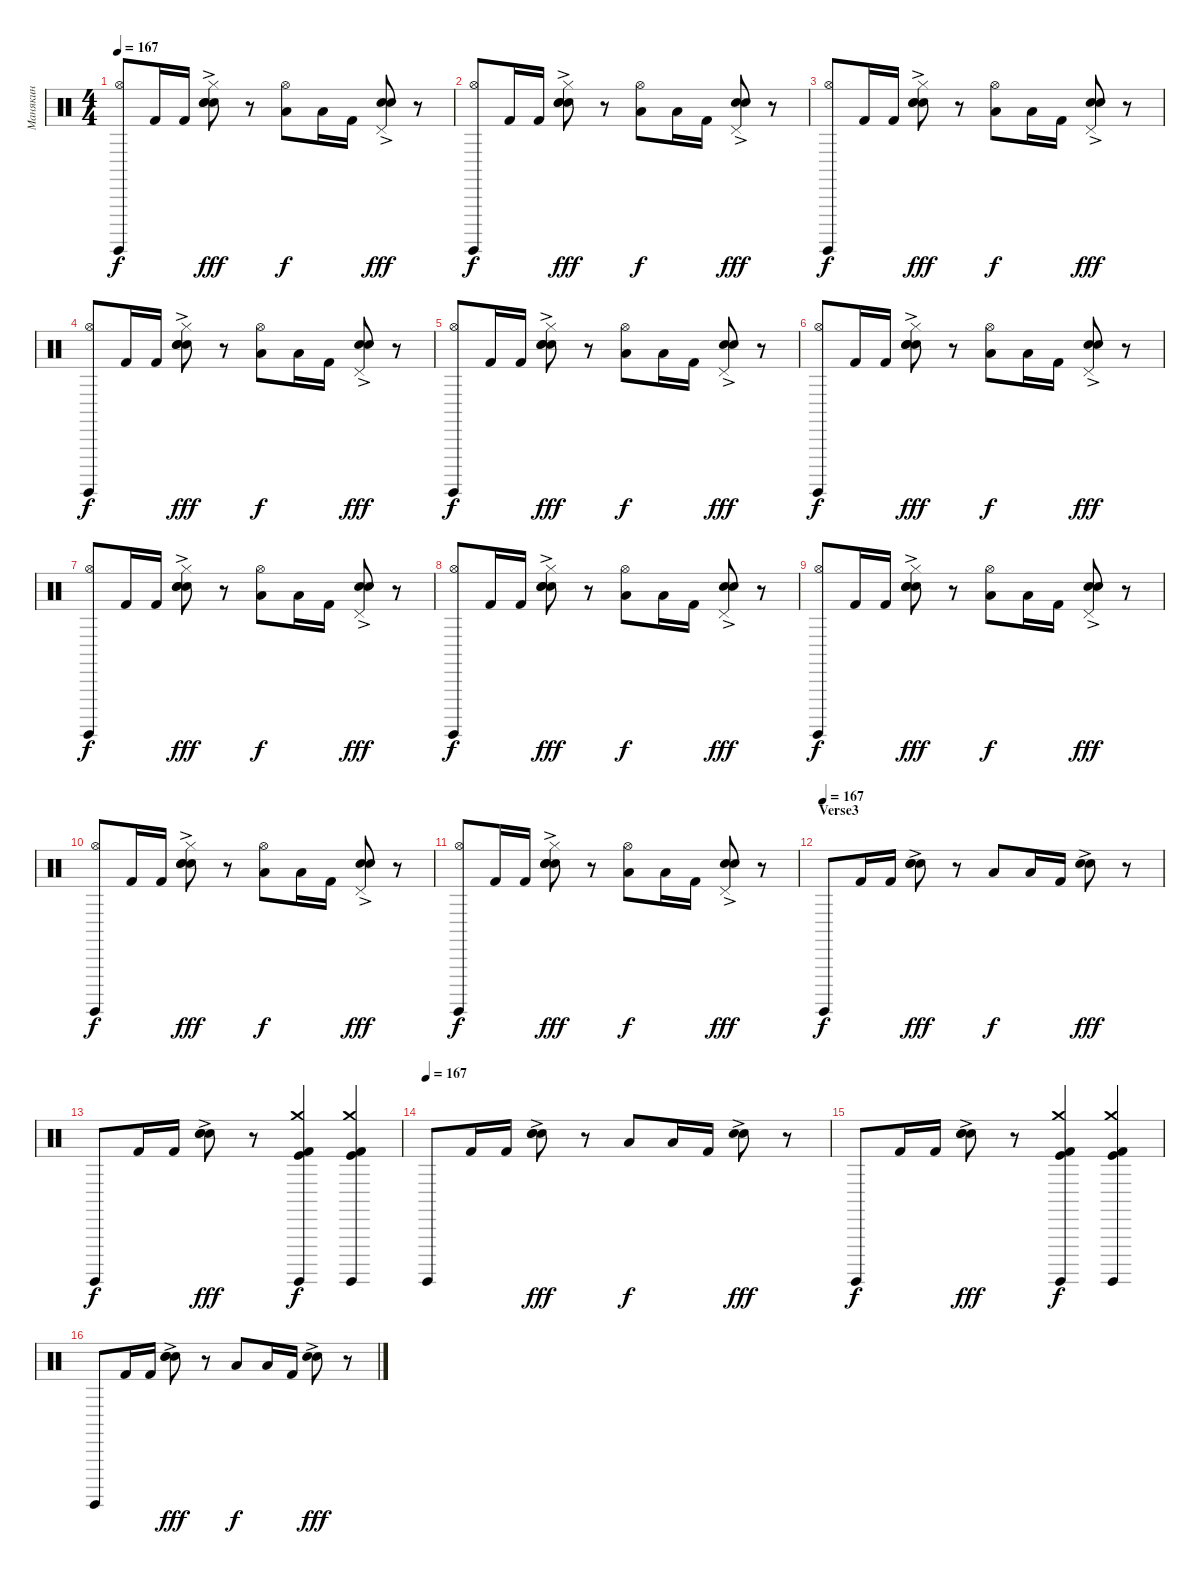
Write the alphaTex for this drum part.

\track ("Манякин" "Манякин") {instrument percussion}
\staff {score}
\articulation defaults
\ts (4 4)
\tempo 167
\clef neutral
\ks c
("Surdo (hit)" "Hi-Hat (open)").8{dy f} "Kick (hit) 2".16 "Kick (hit) 2".16 ("Hi-Hat (closed)" "Electric Snare (hit)"{ac} "Snare (hit) 2" "Electric Snare (hit)").8{dy fff} r.8 ("Low Tom (hit)" "Hi-Hat (open)").8{dy f} "Low Tom (hit)".16 "Kick (hit) 2".16 ("Electric Snare (hit)"{ac} "Snare (hit) 2" "Pedal Hi-Hat (hit)").8{dy fff} r.8 |
("Surdo (hit)" "Hi-Hat (open)").8{dy f} "Kick (hit) 2".16 "Kick (hit) 2".16 ("Hi-Hat (closed)" "Electric Snare (hit)"{ac} "Snare (hit) 2" "Electric Snare (hit)").8{dy fff} r.8 ("Low Tom (hit)" "Hi-Hat (open)").8{dy f} "Low Tom (hit)".16 "Kick (hit) 2".16 ("Electric Snare (hit)"{ac} "Snare (hit) 2" "Pedal Hi-Hat (hit)").8{dy fff} r.8 |
("Surdo (hit)" "Hi-Hat (open)").8{dy f} "Kick (hit) 2".16 "Kick (hit) 2".16 ("Hi-Hat (closed)" "Electric Snare (hit)"{ac} "Snare (hit) 2" "Electric Snare (hit)").8{dy fff} r.8 ("Low Tom (hit)" "Hi-Hat (open)").8{dy f} "Low Tom (hit)".16 "Kick (hit) 2".16 ("Electric Snare (hit)"{ac} "Snare (hit) 2" "Pedal Hi-Hat (hit)").8{dy fff} r.8 |
("Surdo (hit)" "Hi-Hat (open)").8{dy f} "Kick (hit) 2".16 "Kick (hit) 2".16 ("Hi-Hat (closed)" "Electric Snare (hit)"{ac} "Snare (hit) 2" "Electric Snare (hit)").8{dy fff} r.8 ("Low Tom (hit)" "Hi-Hat (open)").8{dy f} "Low Tom (hit)".16 "Kick (hit) 2".16 ("Electric Snare (hit)"{ac} "Snare (hit) 2" "Pedal Hi-Hat (hit)").8{dy fff} r.8 |
("Surdo (hit)" "Hi-Hat (open)").8{dy f} "Kick (hit) 2".16 "Kick (hit) 2".16 ("Hi-Hat (closed)" "Electric Snare (hit)"{ac} "Snare (hit) 2" "Electric Snare (hit)").8{dy fff} r.8 ("Low Tom (hit)" "Hi-Hat (open)").8{dy f} "Low Tom (hit)".16 "Kick (hit) 2".16 ("Electric Snare (hit)"{ac} "Snare (hit) 2" "Pedal Hi-Hat (hit)").8{dy fff} r.8 |
("Surdo (hit)" "Hi-Hat (open)").8{dy f} "Kick (hit) 2".16 "Kick (hit) 2".16 ("Hi-Hat (closed)" "Electric Snare (hit)"{ac} "Snare (hit) 2" "Electric Snare (hit)").8{dy fff} r.8 ("Low Tom (hit)" "Hi-Hat (open)").8{dy f} "Low Tom (hit)".16 "Kick (hit) 2".16 ("Electric Snare (hit)"{ac} "Snare (hit) 2" "Pedal Hi-Hat (hit)").8{dy fff} r.8 |
("Surdo (hit)" "Hi-Hat (open)").8{dy f} "Kick (hit) 2".16 "Kick (hit) 2".16 ("Hi-Hat (closed)" "Electric Snare (hit)"{ac} "Snare (hit) 2" "Electric Snare (hit)").8{dy fff} r.8 ("Low Tom (hit)" "Hi-Hat (open)").8{dy f} "Low Tom (hit)".16 "Kick (hit) 2".16 ("Electric Snare (hit)"{ac} "Snare (hit) 2" "Pedal Hi-Hat (hit)").8{dy fff} r.8 |
("Surdo (hit)" "Hi-Hat (open)").8{dy f} "Kick (hit) 2".16 "Kick (hit) 2".16 ("Hi-Hat (closed)" "Electric Snare (hit)"{ac} "Snare (hit) 2" "Electric Snare (hit)").8{dy fff} r.8 ("Low Tom (hit)" "Hi-Hat (open)").8{dy f} "Low Tom (hit)".16 "Kick (hit) 2".16 ("Electric Snare (hit)"{ac} "Snare (hit) 2" "Pedal Hi-Hat (hit)").8{dy fff} r.8 |
("Surdo (hit)" "Hi-Hat (open)").8{dy f} "Kick (hit) 2".16 "Kick (hit) 2".16 ("Hi-Hat (closed)" "Electric Snare (hit)"{ac} "Snare (hit) 2" "Electric Snare (hit)").8{dy fff} r.8 ("Low Tom (hit)" "Hi-Hat (open)").8{dy f} "Low Tom (hit)".16 "Kick (hit) 2".16 ("Electric Snare (hit)"{ac} "Snare (hit) 2" "Pedal Hi-Hat (hit)").8{dy fff} r.8 |
("Surdo (hit)" "Hi-Hat (open)").8{dy f} "Kick (hit) 2".16 "Kick (hit) 2".16 ("Hi-Hat (closed)" "Electric Snare (hit)"{ac} "Snare (hit) 2" "Electric Snare (hit)").8{dy fff} r.8 ("Low Tom (hit)" "Hi-Hat (open)").8{dy f} "Low Tom (hit)".16 "Kick (hit) 2".16 ("Electric Snare (hit)"{ac} "Snare (hit) 2" "Pedal Hi-Hat (hit)").8{dy fff} r.8 |
("Surdo (hit)" "Hi-Hat (open)").8{dy f} "Kick (hit) 2".16 "Kick (hit) 2".16 ("Hi-Hat (closed)" "Electric Snare (hit)"{ac} "Snare (hit) 2" "Electric Snare (hit)").8{dy fff} r.8 ("Low Tom (hit)" "Hi-Hat (open)").8{dy f} "Low Tom (hit)".16 "Kick (hit) 2".16 ("Electric Snare (hit)"{ac} "Snare (hit) 2" "Pedal Hi-Hat (hit)").8{dy fff} r.8 |
\section ("" "Verse3")
\tempo (167)
"Surdo (hit)".8{dy f} "Kick (hit) 2".16 "Kick (hit) 2".16 ("Electric Snare (hit)"{ac} "Snare (hit) 2" "Electric Snare (hit)").8{dy fff} r.8 "Low Tom (hit)".8{dy f} "Low Tom (hit)".16 "Kick (hit) 2".16 ("Electric Snare (hit)"{ac} "Snare (hit) 2").8{dy fff} r.8 |
"Surdo (hit)".8{dy f} "Kick (hit) 2".16 "Kick (hit) 2".16 ("Electric Snare (hit)"{ac} "Snare (hit) 2" "Electric Snare (hit)").8{dy fff} r.8 ("Kick (hit)" "Crash medium (hit)" "Kick (hit) 2" "Surdo (hit)").4{dy f} ("Kick (hit)" "Crash medium (hit)" "Kick (hit) 2" "Surdo (hit)").4 |
\tempo (167)
"Surdo (hit)".8 "Kick (hit) 2".16 "Kick (hit) 2".16 ("Electric Snare (hit)"{ac} "Snare (hit) 2" "Electric Snare (hit)").8{dy fff} r.8 "Low Tom (hit)".8{dy f} "Low Tom (hit)".16 "Kick (hit) 2".16 ("Electric Snare (hit)"{ac} "Snare (hit) 2").8{dy fff} r.8 |
"Surdo (hit)".8{dy f} "Kick (hit) 2".16 "Kick (hit) 2".16 ("Electric Snare (hit)"{ac} "Snare (hit) 2" "Electric Snare (hit)").8{dy fff} r.8 ("Kick (hit)" "Crash medium (hit)" "Kick (hit) 2" "Surdo (hit)").4{dy f} ("Kick (hit)" "Crash medium (hit)" "Kick (hit) 2" "Surdo (hit)").4 |
"Surdo (hit)".8 "Kick (hit) 2".16 "Kick (hit) 2".16 ("Electric Snare (hit)"{ac} "Snare (hit) 2" "Electric Snare (hit)").8{dy fff} r.8 "Low Tom (hit)".8{dy f} "Low Tom (hit)".16 "Kick (hit) 2".16 ("Electric Snare (hit)"{ac} "Snare (hit) 2").8{dy fff} r.8
